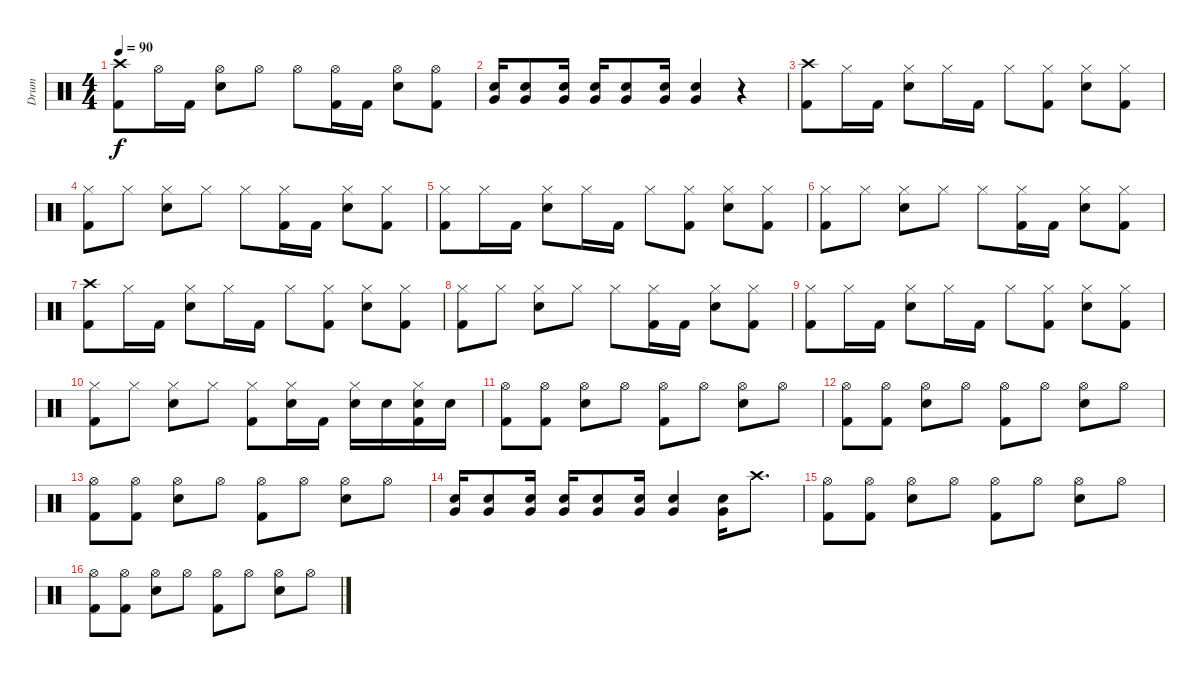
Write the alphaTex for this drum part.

\track ("Drum" "Drum") {instrument percussion}
\staff {score}
\articulation defaults
\ts (4 4)
\tempo 90
\clef neutral
\ks c
("Crash high (hit)" "Kick (hit) 2").8{dy f} "Hi-Hat (open)".16 "Kick (hit) 2".16 ("Hi-Hat (open)" "Electric Snare (hit)").8 "Hi-Hat (open)".8 "Hi-Hat (open)".8 ("Hi-Hat (open)" "Kick (hit) 2").16 "Kick (hit) 2".16 ("Hi-Hat (open)" "Electric Snare (hit)").8 ("Hi-Hat (open)" "Kick (hit) 2").8 |
("Electric Snare (hit)" "Very Low Tom (hit)").16 ("Electric Snare (hit)" "Very Low Tom (hit)").8 ("Electric Snare (hit)" "Very Low Tom (hit)").16 ("Electric Snare (hit)" "Very Low Tom (hit)").16 ("Electric Snare (hit)" "Very Low Tom (hit)").8 ("Electric Snare (hit)" "Very Low Tom (hit)").16 ("Electric Snare (hit)" "Very Low Tom (hit)").4 r.4 |
\ks aminor
("Crash high (hit)" "Kick (hit) 2").8 "Hi-Hat (closed)".16 "Kick (hit) 2".16 ("Hi-Hat (closed)" "Electric Snare (hit)").8 "Hi-Hat (closed)".16 "Kick (hit) 2".16 "Hi-Hat (closed)".8 ("Hi-Hat (closed)" "Kick (hit) 2").8 ("Hi-Hat (closed)" "Electric Snare (hit)").8 ("Hi-Hat (closed)" "Kick (hit) 2").8 |
("Hi-Hat (closed)" "Kick (hit) 2").8 "Hi-Hat (closed)".8 ("Hi-Hat (closed)" "Electric Snare (hit)").8 "Hi-Hat (closed)".8 "Hi-Hat (closed)".8 ("Hi-Hat (closed)" "Kick (hit) 2").16 "Kick (hit) 2".16 ("Hi-Hat (closed)" "Electric Snare (hit)").8 ("Hi-Hat (closed)" "Kick (hit) 2").8 |
("Hi-Hat (closed)" "Kick (hit) 2").8 "Hi-Hat (closed)".16 "Kick (hit) 2".16 ("Hi-Hat (closed)" "Electric Snare (hit)").8 "Hi-Hat (closed)".16 "Kick (hit) 2".16 "Hi-Hat (closed)".8 ("Hi-Hat (closed)" "Kick (hit) 2").8 ("Hi-Hat (closed)" "Electric Snare (hit)").8 ("Hi-Hat (closed)" "Kick (hit) 2").8 |
\ks c
("Hi-Hat (closed)" "Kick (hit) 2").8 "Hi-Hat (closed)".8 ("Hi-Hat (closed)" "Electric Snare (hit)").8 "Hi-Hat (closed)".8 "Hi-Hat (closed)".8 ("Hi-Hat (closed)" "Kick (hit) 2").16 "Kick (hit) 2".16 ("Hi-Hat (closed)" "Electric Snare (hit)").8 ("Hi-Hat (closed)" "Kick (hit) 2").8 |
\ks aminor
("Crash high (hit)" "Kick (hit) 2").8 "Hi-Hat (closed)".16 "Kick (hit) 2".16 ("Hi-Hat (closed)" "Electric Snare (hit)").8 "Hi-Hat (closed)".16 "Kick (hit) 2".16 "Hi-Hat (closed)".8 ("Hi-Hat (closed)" "Kick (hit) 2").8 ("Hi-Hat (closed)" "Electric Snare (hit)").8 ("Hi-Hat (closed)" "Kick (hit) 2").8 |
("Hi-Hat (closed)" "Kick (hit) 2").8 "Hi-Hat (closed)".8 ("Hi-Hat (closed)" "Electric Snare (hit)").8 "Hi-Hat (closed)".8 "Hi-Hat (closed)".8 ("Hi-Hat (closed)" "Kick (hit) 2").16 "Kick (hit) 2".16 ("Hi-Hat (closed)" "Electric Snare (hit)").8 ("Hi-Hat (closed)" "Kick (hit) 2").8 |
("Hi-Hat (closed)" "Kick (hit) 2").8 "Hi-Hat (closed)".16 "Kick (hit) 2".16 ("Hi-Hat (closed)" "Electric Snare (hit)").8 "Hi-Hat (closed)".16 "Kick (hit) 2".16 "Hi-Hat (closed)".8 ("Hi-Hat (closed)" "Kick (hit) 2").8 ("Hi-Hat (closed)" "Electric Snare (hit)").8 ("Hi-Hat (closed)" "Kick (hit) 2").8 |
\ks c
("Hi-Hat (closed)" "Kick (hit) 2").8 "Hi-Hat (closed)".8 ("Hi-Hat (closed)" "Electric Snare (hit)").8 "Hi-Hat (closed)".8 ("Hi-Hat (closed)" "Kick (hit) 2").8 ("Hi-Hat (closed)" "Electric Snare (hit)").16 "Kick (hit) 2".16 ("Hi-Hat (closed)" "Electric Snare (hit)").16 "Electric Snare (hit)".16 ("Hi-Hat (closed)" "Electric Snare (hit)" "Kick (hit) 2").16 "Electric Snare (hit)".16 |
("Hi-Hat (open)" "Kick (hit) 2").8 ("Hi-Hat (open)" "Kick (hit) 2").8 ("Hi-Hat (open)" "Electric Snare (hit)").8 "Hi-Hat (open)".8 ("Hi-Hat (open)" "Kick (hit) 2").8 "Hi-Hat (open)".8 ("Hi-Hat (open)" "Electric Snare (hit)").8 "Hi-Hat (open)".8 |
("Hi-Hat (open)" "Kick (hit) 2").8 ("Hi-Hat (open)" "Kick (hit) 2").8 ("Hi-Hat (open)" "Electric Snare (hit)").8 "Hi-Hat (open)".8 ("Hi-Hat (open)" "Kick (hit) 2").8 "Hi-Hat (open)".8 ("Hi-Hat (open)" "Electric Snare (hit)").8 "Hi-Hat (open)".8 |
("Hi-Hat (open)" "Kick (hit) 2").8 ("Hi-Hat (open)" "Kick (hit) 2").8 ("Hi-Hat (open)" "Electric Snare (hit)").8 "Hi-Hat (open)".8 ("Hi-Hat (open)" "Kick (hit) 2").8 "Hi-Hat (open)".8 ("Hi-Hat (open)" "Electric Snare (hit)").8 "Hi-Hat (open)".8 |
("Electric Snare (hit)" "Very Low Tom (hit)").16 ("Electric Snare (hit)" "Very Low Tom (hit)").8 ("Electric Snare (hit)" "Very Low Tom (hit)").16 ("Electric Snare (hit)" "Very Low Tom (hit)").16 ("Electric Snare (hit)" "Very Low Tom (hit)").8 ("Electric Snare (hit)" "Very Low Tom (hit)").16 ("Electric Snare (hit)" "Very Low Tom (hit)").4 ("Electric Snare (hit)" "Very Low Tom (hit)").16 "Crash high (hit)".8{d} |
("Hi-Hat (open)" "Kick (hit) 2").8 ("Hi-Hat (open)" "Kick (hit) 2").8 ("Hi-Hat (open)" "Electric Snare (hit)").8 "Hi-Hat (open)".8 ("Hi-Hat (open)" "Kick (hit) 2").8 "Hi-Hat (open)".8 ("Hi-Hat (open)" "Electric Snare (hit)").8 "Hi-Hat (open)".8 |
("Hi-Hat (open)" "Kick (hit) 2").8 ("Hi-Hat (open)" "Kick (hit) 2").8 ("Hi-Hat (open)" "Electric Snare (hit)").8 "Hi-Hat (open)".8 ("Hi-Hat (open)" "Kick (hit) 2").8 "Hi-Hat (open)".8 ("Hi-Hat (open)" "Electric Snare (hit)").8 "Hi-Hat (open)".8
